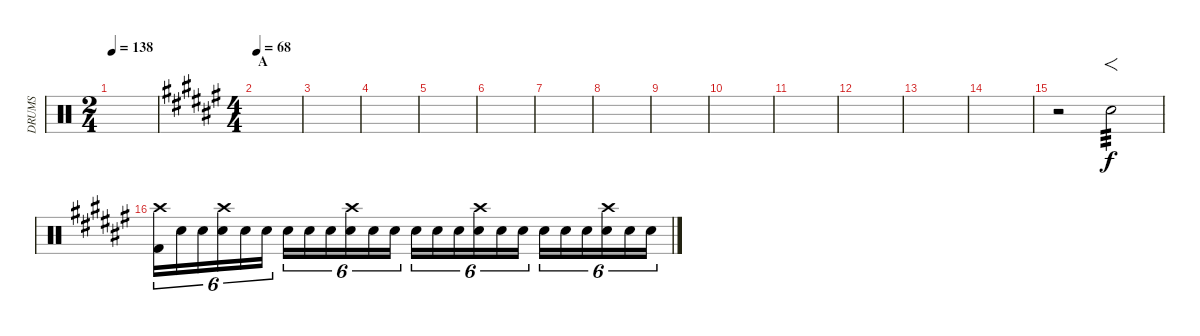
\track ("DRUMS" "DRUMS") {instrument percussion}
\staff {score}
\articulation defaults
\ts (2 4)
\tempo 138
\clef neutral
\ks c
|
\ts (4 4)
\section ("" "A")
\tempo 68
\ks f#
|
|
|
|
|
|
|
|
|
|
|
|
|
r.2 "Snare (hit) 2".2{f tp 3} |
("Crash high (hit)" "Kick (hit) 2").16{tu (6 4)} "Snare (hit) 2".16{tu (6 4)} "Snare (hit) 2".16{tu (6 4)} ("Crash high (hit)" "Snare (hit) 2").16{tu (6 4)} "Snare (hit) 2".16{tu (6 4)} "Snare (hit) 2".16{tu (6 4)} "Snare (hit) 2".16{tu (6 4)} "Snare (hit) 2".16{tu (6 4)} "Snare (hit) 2".16{tu (6 4)} ("Crash high (hit)" "Snare (hit) 2").16{tu (6 4)} "Snare (hit) 2".16{tu (6 4)} "Snare (hit) 2".16{tu (6 4)} "Snare (hit) 2".16{tu (6 4)} "Snare (hit) 2".16{tu (6 4)} "Snare (hit) 2".16{tu (6 4)} ("Crash high (hit)" "Snare (hit) 2").16{tu (6 4)} "Snare (hit) 2".16{tu (6 4)} "Snare (hit) 2".16{tu (6 4)} "Snare (hit) 2".16{tu (6 4)} "Snare (hit) 2".16{tu (6 4)} "Snare (hit) 2".16{tu (6 4)} ("Crash high (hit)" "Snare (hit) 2").16{tu (6 4)} "Snare (hit) 2".16{tu (6 4)} "Snare (hit) 2".16{tu (6 4)}
